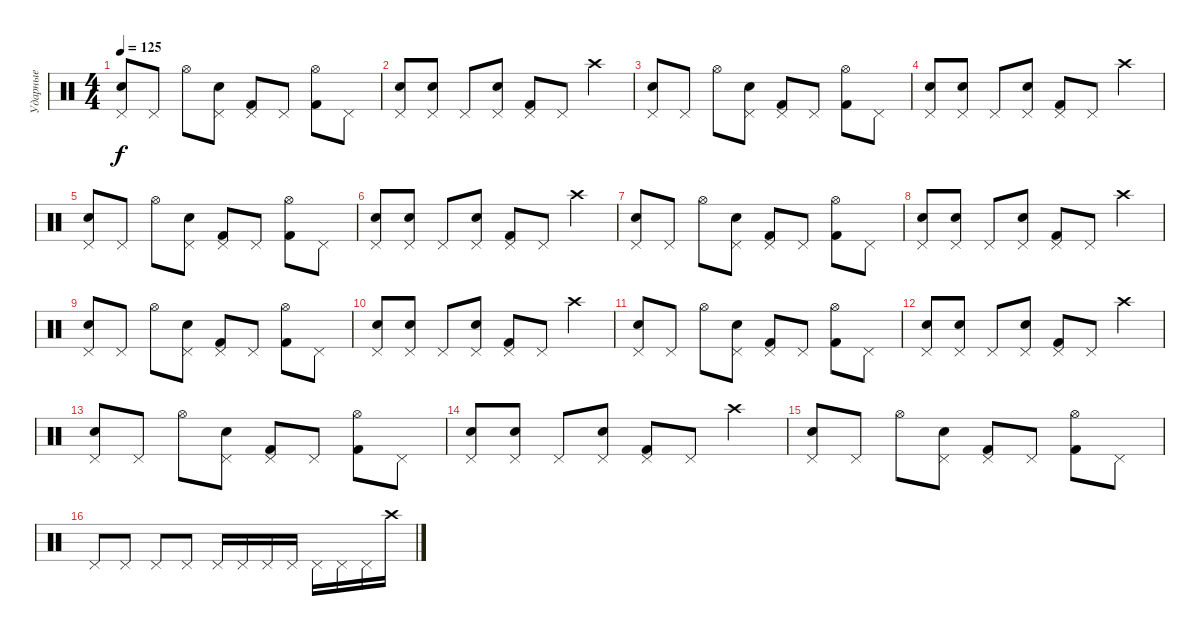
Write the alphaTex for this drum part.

\track ("Ударные" "Ударные") {instrument percussion}
\staff {score}
\articulation defaults
\ts (4 4)
\tempo 125
\clef neutral
\ks c
("Pedal Hi-Hat (hit)" "Snare (hit) 2").8{dy f} "Pedal Hi-Hat (hit)".8 "Hi-Hat (open)".8 ("Pedal Hi-Hat (hit)" "Snare (hit) 2").8 ("Pedal Hi-Hat (hit)" "Kick (hit) 2").8 "Pedal Hi-Hat (hit)".8 ("Hi-Hat (open)" "Kick (hit) 2").8 "Pedal Hi-Hat (hit)".8 |
("Pedal Hi-Hat (hit)" "Snare (hit) 2").8 ("Pedal Hi-Hat (hit)" "Snare (hit) 2").8 "Pedal Hi-Hat (hit)".8 ("Pedal Hi-Hat (hit)" "Snare (hit) 2").8 ("Pedal Hi-Hat (hit)" "Kick (hit) 2").8 "Pedal Hi-Hat (hit)".8 "Crash high (hit)".4 |
("Pedal Hi-Hat (hit)" "Snare (hit) 2").8 "Pedal Hi-Hat (hit)".8 "Hi-Hat (open)".8 ("Pedal Hi-Hat (hit)" "Snare (hit) 2").8 ("Pedal Hi-Hat (hit)" "Kick (hit) 2").8 "Pedal Hi-Hat (hit)".8 ("Hi-Hat (open)" "Kick (hit) 2").8 "Pedal Hi-Hat (hit)".8 |
("Pedal Hi-Hat (hit)" "Snare (hit) 2").8 ("Pedal Hi-Hat (hit)" "Snare (hit) 2").8 "Pedal Hi-Hat (hit)".8 ("Pedal Hi-Hat (hit)" "Snare (hit) 2").8 ("Pedal Hi-Hat (hit)" "Kick (hit) 2").8 "Pedal Hi-Hat (hit)".8 "Crash high (hit)".4 |
("Pedal Hi-Hat (hit)" "Snare (hit) 2").8 "Pedal Hi-Hat (hit)".8 "Hi-Hat (open)".8 ("Pedal Hi-Hat (hit)" "Snare (hit) 2").8 ("Pedal Hi-Hat (hit)" "Kick (hit) 2").8 "Pedal Hi-Hat (hit)".8 ("Hi-Hat (open)" "Kick (hit) 2").8 "Pedal Hi-Hat (hit)".8 |
("Pedal Hi-Hat (hit)" "Snare (hit) 2").8 ("Pedal Hi-Hat (hit)" "Snare (hit) 2").8 "Pedal Hi-Hat (hit)".8 ("Pedal Hi-Hat (hit)" "Snare (hit) 2").8 ("Pedal Hi-Hat (hit)" "Kick (hit) 2").8 "Pedal Hi-Hat (hit)".8 "Crash high (hit)".4 |
("Pedal Hi-Hat (hit)" "Snare (hit) 2").8 "Pedal Hi-Hat (hit)".8 "Hi-Hat (open)".8 ("Pedal Hi-Hat (hit)" "Snare (hit) 2").8 ("Pedal Hi-Hat (hit)" "Kick (hit) 2").8 "Pedal Hi-Hat (hit)".8 ("Hi-Hat (open)" "Kick (hit) 2").8 "Pedal Hi-Hat (hit)".8 |
("Pedal Hi-Hat (hit)" "Snare (hit) 2").8 ("Pedal Hi-Hat (hit)" "Snare (hit) 2").8 "Pedal Hi-Hat (hit)".8 ("Pedal Hi-Hat (hit)" "Snare (hit) 2").8 ("Pedal Hi-Hat (hit)" "Kick (hit) 2").8 "Pedal Hi-Hat (hit)".8 "Crash high (hit)".4 |
("Pedal Hi-Hat (hit)" "Snare (hit) 2").8 "Pedal Hi-Hat (hit)".8 "Hi-Hat (open)".8 ("Pedal Hi-Hat (hit)" "Snare (hit) 2").8 ("Pedal Hi-Hat (hit)" "Kick (hit) 2").8 "Pedal Hi-Hat (hit)".8 ("Hi-Hat (open)" "Kick (hit) 2").8 "Pedal Hi-Hat (hit)".8 |
("Pedal Hi-Hat (hit)" "Snare (hit) 2").8 ("Pedal Hi-Hat (hit)" "Snare (hit) 2").8 "Pedal Hi-Hat (hit)".8 ("Pedal Hi-Hat (hit)" "Snare (hit) 2").8 ("Pedal Hi-Hat (hit)" "Kick (hit) 2").8 "Pedal Hi-Hat (hit)".8 "Crash high (hit)".4 |
("Pedal Hi-Hat (hit)" "Snare (hit) 2").8 "Pedal Hi-Hat (hit)".8 "Hi-Hat (open)".8 ("Pedal Hi-Hat (hit)" "Snare (hit) 2").8 ("Pedal Hi-Hat (hit)" "Kick (hit) 2").8 "Pedal Hi-Hat (hit)".8 ("Hi-Hat (open)" "Kick (hit) 2").8 "Pedal Hi-Hat (hit)".8 |
("Pedal Hi-Hat (hit)" "Snare (hit) 2").8 ("Pedal Hi-Hat (hit)" "Snare (hit) 2").8 "Pedal Hi-Hat (hit)".8 ("Pedal Hi-Hat (hit)" "Snare (hit) 2").8 ("Pedal Hi-Hat (hit)" "Kick (hit) 2").8 "Pedal Hi-Hat (hit)".8 "Crash high (hit)".4 |
("Pedal Hi-Hat (hit)" "Snare (hit) 2").8 "Pedal Hi-Hat (hit)".8 "Hi-Hat (open)".8 ("Pedal Hi-Hat (hit)" "Snare (hit) 2").8 ("Pedal Hi-Hat (hit)" "Kick (hit) 2").8 "Pedal Hi-Hat (hit)".8 ("Hi-Hat (open)" "Kick (hit) 2").8 "Pedal Hi-Hat (hit)".8 |
("Pedal Hi-Hat (hit)" "Snare (hit) 2").8 ("Pedal Hi-Hat (hit)" "Snare (hit) 2").8 "Pedal Hi-Hat (hit)".8 ("Pedal Hi-Hat (hit)" "Snare (hit) 2").8 ("Pedal Hi-Hat (hit)" "Kick (hit) 2").8 "Pedal Hi-Hat (hit)".8 "Crash high (hit)".4 |
("Pedal Hi-Hat (hit)" "Snare (hit) 2").8 "Pedal Hi-Hat (hit)".8 "Hi-Hat (open)".8 ("Pedal Hi-Hat (hit)" "Snare (hit) 2").8 ("Pedal Hi-Hat (hit)" "Kick (hit) 2").8 "Pedal Hi-Hat (hit)".8 ("Hi-Hat (open)" "Kick (hit) 2").8 "Pedal Hi-Hat (hit)".8 |
"Pedal Hi-Hat (hit)".8 "Pedal Hi-Hat (hit)".8 "Pedal Hi-Hat (hit)".8 "Pedal Hi-Hat (hit)".8 "Pedal Hi-Hat (hit)".16 "Pedal Hi-Hat (hit)".16 "Pedal Hi-Hat (hit)".16 "Pedal Hi-Hat (hit)".16 "Pedal Hi-Hat (hit)".16 "Pedal Hi-Hat (hit)".16 "Pedal Hi-Hat (hit)".16 "Crash high (hit)".16
